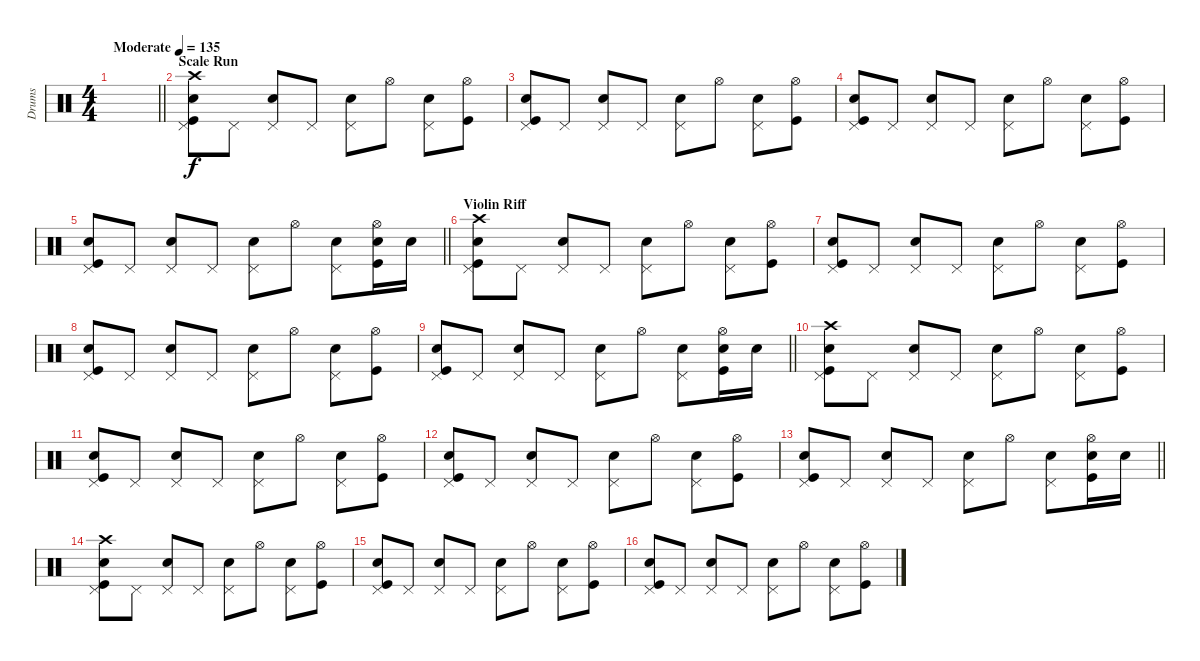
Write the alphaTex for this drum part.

\track ("Drums" "Drums") {instrument percussion}
\staff {score}
\articulation defaults
\ts (4 4)
\tempo (135 "Moderate")
\clef neutral
\barLineRight lightlight
\ks c
|
\section ("" "Scale Run")
("Pedal Hi-Hat (hit)" "Kick (hit)" "Electric Snare (hit)" "Crash high (hit)").8 "Pedal Hi-Hat (hit)".8 ("Pedal Hi-Hat (hit)" "Electric Snare (hit)").8 "Pedal Hi-Hat (hit)".8 ("Pedal Hi-Hat (hit)" "Electric Snare (hit)").8 "Hi-Hat (open)".8 ("Pedal Hi-Hat (hit)" "Electric Snare (hit)").8 ("Hi-Hat (open)" "Kick (hit)").8 |
("Pedal Hi-Hat (hit)" "Kick (hit)" "Electric Snare (hit)").8 "Pedal Hi-Hat (hit)".8 ("Pedal Hi-Hat (hit)" "Electric Snare (hit)").8 "Pedal Hi-Hat (hit)".8 ("Pedal Hi-Hat (hit)" "Electric Snare (hit)").8 "Hi-Hat (open)".8 ("Pedal Hi-Hat (hit)" "Electric Snare (hit)").8 ("Hi-Hat (open)" "Kick (hit)").8 |
("Pedal Hi-Hat (hit)" "Kick (hit)" "Electric Snare (hit)").8 "Pedal Hi-Hat (hit)".8 ("Pedal Hi-Hat (hit)" "Electric Snare (hit)").8 "Pedal Hi-Hat (hit)".8 ("Pedal Hi-Hat (hit)" "Electric Snare (hit)").8 "Hi-Hat (open)".8 ("Pedal Hi-Hat (hit)" "Electric Snare (hit)").8 ("Hi-Hat (open)" "Kick (hit)").8 |
\barLineRight lightlight
("Pedal Hi-Hat (hit)" "Kick (hit)" "Electric Snare (hit)").8 "Pedal Hi-Hat (hit)".8 ("Pedal Hi-Hat (hit)" "Electric Snare (hit)").8 "Pedal Hi-Hat (hit)".8 ("Pedal Hi-Hat (hit)" "Electric Snare (hit)").8 "Hi-Hat (open)".8 ("Pedal Hi-Hat (hit)" "Electric Snare (hit)").8 ("Hi-Hat (open)" "Kick (hit)" "Electric Snare (hit)").16 "Electric Snare (hit)".16 |
\section ("" "Violin Riff")
("Pedal Hi-Hat (hit)" "Kick (hit)" "Electric Snare (hit)" "Crash high (hit)").8 "Pedal Hi-Hat (hit)".8 ("Pedal Hi-Hat (hit)" "Electric Snare (hit)").8 "Pedal Hi-Hat (hit)".8 ("Pedal Hi-Hat (hit)" "Electric Snare (hit)").8 "Hi-Hat (open)".8 ("Pedal Hi-Hat (hit)" "Electric Snare (hit)").8 ("Hi-Hat (open)" "Kick (hit)").8 |
("Pedal Hi-Hat (hit)" "Kick (hit)" "Electric Snare (hit)").8 "Pedal Hi-Hat (hit)".8 ("Pedal Hi-Hat (hit)" "Electric Snare (hit)").8 "Pedal Hi-Hat (hit)".8 ("Pedal Hi-Hat (hit)" "Electric Snare (hit)").8 "Hi-Hat (open)".8 ("Pedal Hi-Hat (hit)" "Electric Snare (hit)").8 ("Hi-Hat (open)" "Kick (hit)").8 |
("Pedal Hi-Hat (hit)" "Kick (hit)" "Electric Snare (hit)").8 "Pedal Hi-Hat (hit)".8 ("Pedal Hi-Hat (hit)" "Electric Snare (hit)").8 "Pedal Hi-Hat (hit)".8 ("Pedal Hi-Hat (hit)" "Electric Snare (hit)").8 "Hi-Hat (open)".8 ("Pedal Hi-Hat (hit)" "Electric Snare (hit)").8 ("Hi-Hat (open)" "Kick (hit)").8 |
\barLineRight lightlight
("Pedal Hi-Hat (hit)" "Kick (hit)" "Electric Snare (hit)").8 "Pedal Hi-Hat (hit)".8 ("Pedal Hi-Hat (hit)" "Electric Snare (hit)").8 "Pedal Hi-Hat (hit)".8 ("Pedal Hi-Hat (hit)" "Electric Snare (hit)").8 "Hi-Hat (open)".8 ("Pedal Hi-Hat (hit)" "Electric Snare (hit)").8 ("Hi-Hat (open)" "Kick (hit)" "Electric Snare (hit)").16 "Electric Snare (hit)".16 |
("Pedal Hi-Hat (hit)" "Kick (hit)" "Electric Snare (hit)" "Crash high (hit)").8 "Pedal Hi-Hat (hit)".8 ("Pedal Hi-Hat (hit)" "Electric Snare (hit)").8 "Pedal Hi-Hat (hit)".8 ("Pedal Hi-Hat (hit)" "Electric Snare (hit)").8 "Hi-Hat (open)".8 ("Pedal Hi-Hat (hit)" "Electric Snare (hit)").8 ("Hi-Hat (open)" "Kick (hit)").8 |
("Pedal Hi-Hat (hit)" "Kick (hit)" "Electric Snare (hit)").8 "Pedal Hi-Hat (hit)".8 ("Pedal Hi-Hat (hit)" "Electric Snare (hit)").8 "Pedal Hi-Hat (hit)".8 ("Pedal Hi-Hat (hit)" "Electric Snare (hit)").8 "Hi-Hat (open)".8 ("Pedal Hi-Hat (hit)" "Electric Snare (hit)").8 ("Hi-Hat (open)" "Kick (hit)").8 |
("Pedal Hi-Hat (hit)" "Kick (hit)" "Electric Snare (hit)").8 "Pedal Hi-Hat (hit)".8 ("Pedal Hi-Hat (hit)" "Electric Snare (hit)").8 "Pedal Hi-Hat (hit)".8 ("Pedal Hi-Hat (hit)" "Electric Snare (hit)").8 "Hi-Hat (open)".8 ("Pedal Hi-Hat (hit)" "Electric Snare (hit)").8 ("Hi-Hat (open)" "Kick (hit)").8 |
\barLineRight lightlight
("Pedal Hi-Hat (hit)" "Kick (hit)" "Electric Snare (hit)").8 "Pedal Hi-Hat (hit)".8 ("Pedal Hi-Hat (hit)" "Electric Snare (hit)").8 "Pedal Hi-Hat (hit)".8 ("Pedal Hi-Hat (hit)" "Electric Snare (hit)").8 "Hi-Hat (open)".8 ("Pedal Hi-Hat (hit)" "Electric Snare (hit)").8 ("Hi-Hat (open)" "Kick (hit)" "Electric Snare (hit)").16 "Electric Snare (hit)".16 |
("Pedal Hi-Hat (hit)" "Kick (hit)" "Electric Snare (hit)" "Crash high (hit)").8 "Pedal Hi-Hat (hit)".8 ("Pedal Hi-Hat (hit)" "Electric Snare (hit)").8 "Pedal Hi-Hat (hit)".8 ("Pedal Hi-Hat (hit)" "Electric Snare (hit)").8 "Hi-Hat (open)".8 ("Pedal Hi-Hat (hit)" "Electric Snare (hit)").8 ("Hi-Hat (open)" "Kick (hit)").8 |
("Pedal Hi-Hat (hit)" "Kick (hit)" "Electric Snare (hit)").8 "Pedal Hi-Hat (hit)".8 ("Pedal Hi-Hat (hit)" "Electric Snare (hit)").8 "Pedal Hi-Hat (hit)".8 ("Pedal Hi-Hat (hit)" "Electric Snare (hit)").8 "Hi-Hat (open)".8 ("Pedal Hi-Hat (hit)" "Electric Snare (hit)").8 ("Hi-Hat (open)" "Kick (hit)").8 |
("Pedal Hi-Hat (hit)" "Kick (hit)" "Electric Snare (hit)").8 "Pedal Hi-Hat (hit)".8 ("Pedal Hi-Hat (hit)" "Electric Snare (hit)").8 "Pedal Hi-Hat (hit)".8 ("Pedal Hi-Hat (hit)" "Electric Snare (hit)").8 "Hi-Hat (open)".8 ("Pedal Hi-Hat (hit)" "Electric Snare (hit)").8 ("Hi-Hat (open)" "Kick (hit)").8
